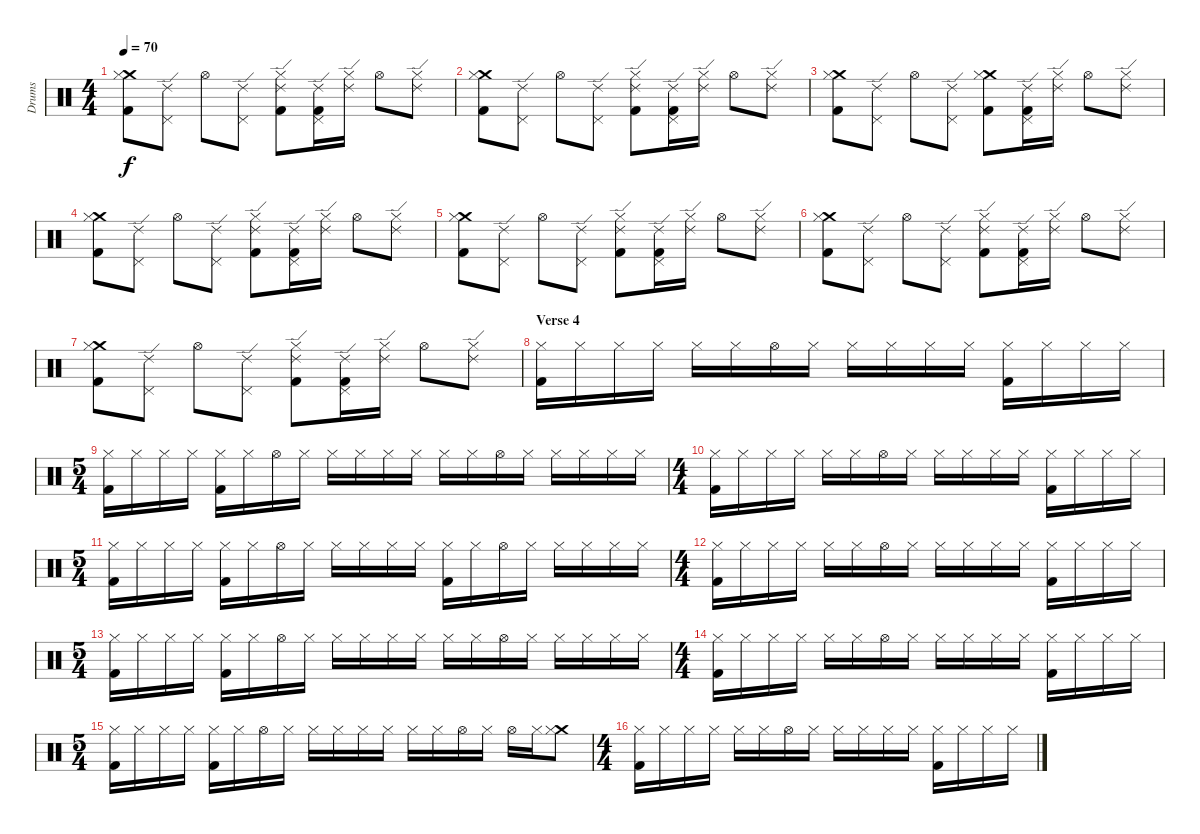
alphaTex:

\track ("Drums" "Drums") {instrument percussion}
\staff {score}
\articulation defaults
\ts (4 4)
\tempo 70
\clef neutral
\ks c
("Crash medium (hit)" "Hi-Hat (closed)" "Kick (hit) 2").8{dy f} ("Ride (edge) 2" "Pedal Hi-Hat (hit)").8 "Hi-Hat (open)".8 ("Ride (edge) 2" "Pedal Hi-Hat (hit)").8 ("Ride (edge) 2" "Hi-Hat (closed)" "Kick (hit) 2").8 ("Ride (edge) 2" "Pedal Hi-Hat (hit)" "Kick (hit) 2").16 ("Ride (edge) 2" "Hi-Hat (closed)").16 "Hi-Hat (open)".8 ("Ride (edge) 2" "Hi-Hat (closed)").8 |
("Crash medium (hit)" "Hi-Hat (closed)" "Kick (hit) 2").8 ("Ride (edge) 2" "Pedal Hi-Hat (hit)").8 "Hi-Hat (open)".8 ("Ride (edge) 2" "Pedal Hi-Hat (hit)").8 ("Ride (edge) 2" "Hi-Hat (closed)" "Kick (hit) 2").8 ("Ride (edge) 2" "Pedal Hi-Hat (hit)" "Kick (hit) 2").16 ("Ride (edge) 2" "Hi-Hat (closed)").16 "Hi-Hat (open)".8 ("Ride (edge) 2" "Hi-Hat (closed)").8 |
("Crash medium (hit)" "Hi-Hat (closed)" "Kick (hit) 2").8 ("Ride (edge) 2" "Pedal Hi-Hat (hit)").8 "Hi-Hat (open)".8 ("Ride (edge) 2" "Pedal Hi-Hat (hit)").8 ("Crash medium (hit)" "Hi-Hat (closed)" "Kick (hit) 2").8 ("Ride (edge) 2" "Pedal Hi-Hat (hit)" "Kick (hit) 2").16 ("Ride (edge) 2" "Hi-Hat (closed)").16 "Hi-Hat (open)".8 ("Ride (edge) 2" "Hi-Hat (closed)").8 |
("Crash medium (hit)" "Hi-Hat (closed)" "Kick (hit) 2").8 ("Ride (edge) 2" "Pedal Hi-Hat (hit)").8 "Hi-Hat (open)".8 ("Ride (edge) 2" "Pedal Hi-Hat (hit)").8 ("Ride (edge) 2" "Hi-Hat (closed)" "Kick (hit) 2").8 ("Ride (edge) 2" "Pedal Hi-Hat (hit)" "Kick (hit) 2").16 ("Ride (edge) 2" "Hi-Hat (closed)").16 "Hi-Hat (open)".8 ("Ride (edge) 2" "Hi-Hat (closed)").8 |
("Crash medium (hit)" "Hi-Hat (closed)" "Kick (hit) 2").8 ("Ride (edge) 2" "Pedal Hi-Hat (hit)").8 "Hi-Hat (open)".8 ("Ride (edge) 2" "Pedal Hi-Hat (hit)").8 ("Ride (edge) 2" "Hi-Hat (closed)" "Kick (hit) 2").8 ("Ride (edge) 2" "Pedal Hi-Hat (hit)" "Kick (hit) 2").16 ("Ride (edge) 2" "Hi-Hat (closed)").16 "Hi-Hat (open)".8 ("Ride (edge) 2" "Hi-Hat (closed)").8 |
("Crash medium (hit)" "Hi-Hat (closed)" "Kick (hit) 2").8 ("Ride (edge) 2" "Pedal Hi-Hat (hit)").8 "Hi-Hat (open)".8 ("Ride (edge) 2" "Pedal Hi-Hat (hit)").8 ("Ride (edge) 2" "Hi-Hat (closed)" "Kick (hit) 2").8 ("Ride (edge) 2" "Pedal Hi-Hat (hit)" "Kick (hit) 2").16 ("Ride (edge) 2" "Hi-Hat (closed)").16 "Hi-Hat (open)".8 ("Ride (edge) 2" "Hi-Hat (closed)").8 |
("Crash medium (hit)" "Hi-Hat (closed)" "Kick (hit) 2").8 ("Ride (edge) 2" "Pedal Hi-Hat (hit)").8 "Hi-Hat (open)".8 ("Ride (edge) 2" "Pedal Hi-Hat (hit)").8 ("Ride (edge) 2" "Hi-Hat (closed)" "Kick (hit) 2").8 ("Ride (edge) 2" "Pedal Hi-Hat (hit)" "Kick (hit) 2").16 ("Ride (edge) 2" "Hi-Hat (closed)").16 "Hi-Hat (open)".8 ("Ride (edge) 2" "Hi-Hat (closed)").8 |
\section ("" "Verse 4")
("Hi-Hat (closed)" "Kick (hit) 2").16 "Hi-Hat (closed)".16 "Hi-Hat (closed)".16 "Hi-Hat (closed)".16 "Hi-Hat (closed)".16 "Hi-Hat (closed)".16 "Hi-Hat (open)".16 "Hi-Hat (closed)".16 "Hi-Hat (closed)".16 "Hi-Hat (closed)".16 "Hi-Hat (closed)".16 "Hi-Hat (closed)".16 ("Hi-Hat (closed)" "Kick (hit) 2").16 "Hi-Hat (closed)".16 "Hi-Hat (closed)".16 "Hi-Hat (closed)".16 |
\ts (5 4)
("Hi-Hat (closed)" "Kick (hit) 2").16 "Hi-Hat (closed)".16 "Hi-Hat (closed)".16 "Hi-Hat (closed)".16 ("Hi-Hat (closed)" "Kick (hit) 2").16 "Hi-Hat (closed)".16 "Hi-Hat (open)".16 "Hi-Hat (closed)".16 "Hi-Hat (closed)".16 "Hi-Hat (closed)".16 "Hi-Hat (closed)".16 "Hi-Hat (closed)".16 "Hi-Hat (closed)".16 "Hi-Hat (closed)".16 "Hi-Hat (open)".16 "Hi-Hat (closed)".16 "Hi-Hat (closed)".16 "Hi-Hat (closed)".16 "Hi-Hat (closed)".16 "Hi-Hat (closed)".16 |
\ts (4 4)
("Hi-Hat (closed)" "Kick (hit) 2").16 "Hi-Hat (closed)".16 "Hi-Hat (closed)".16 "Hi-Hat (closed)".16 "Hi-Hat (closed)".16 "Hi-Hat (closed)".16 "Hi-Hat (open)".16 "Hi-Hat (closed)".16 "Hi-Hat (closed)".16 "Hi-Hat (closed)".16 "Hi-Hat (closed)".16 "Hi-Hat (closed)".16 ("Hi-Hat (closed)" "Kick (hit) 2").16 "Hi-Hat (closed)".16 "Hi-Hat (closed)".16 "Hi-Hat (closed)".16 |
\ts (5 4)
("Hi-Hat (closed)" "Kick (hit) 2").16 "Hi-Hat (closed)".16 "Hi-Hat (closed)".16 "Hi-Hat (closed)".16 ("Hi-Hat (closed)" "Kick (hit) 2").16 "Hi-Hat (closed)".16 "Hi-Hat (open)".16 "Hi-Hat (closed)".16 "Hi-Hat (closed)".16 "Hi-Hat (closed)".16 "Hi-Hat (closed)".16 "Hi-Hat (closed)".16 ("Hi-Hat (closed)" "Kick (hit) 2").16 "Hi-Hat (closed)".16 "Hi-Hat (open)".16 "Hi-Hat (closed)".16 "Hi-Hat (closed)".16 "Hi-Hat (closed)".16 "Hi-Hat (closed)".16 "Hi-Hat (closed)".16 |
\ts (4 4)
("Hi-Hat (closed)" "Kick (hit) 2").16 "Hi-Hat (closed)".16 "Hi-Hat (closed)".16 "Hi-Hat (closed)".16 "Hi-Hat (closed)".16 "Hi-Hat (closed)".16 "Hi-Hat (open)".16 "Hi-Hat (closed)".16 "Hi-Hat (closed)".16 "Hi-Hat (closed)".16 "Hi-Hat (closed)".16 "Hi-Hat (closed)".16 ("Hi-Hat (closed)" "Kick (hit) 2").16 "Hi-Hat (closed)".16 "Hi-Hat (closed)".16 "Hi-Hat (closed)".16 |
\ts (5 4)
("Hi-Hat (closed)" "Kick (hit) 2").16 "Hi-Hat (closed)".16 "Hi-Hat (closed)".16 "Hi-Hat (closed)".16 ("Hi-Hat (closed)" "Kick (hit) 2").16 "Hi-Hat (closed)".16 "Hi-Hat (open)".16 "Hi-Hat (closed)".16 "Hi-Hat (closed)".16 "Hi-Hat (closed)".16 "Hi-Hat (closed)".16 "Hi-Hat (closed)".16 "Hi-Hat (closed)".16 "Hi-Hat (closed)".16 "Hi-Hat (open)".16 "Hi-Hat (closed)".16 "Hi-Hat (closed)".16 "Hi-Hat (closed)".16 "Hi-Hat (closed)".16 "Hi-Hat (closed)".16 |
\ts (4 4)
("Hi-Hat (closed)" "Kick (hit) 2").16 "Hi-Hat (closed)".16 "Hi-Hat (closed)".16 "Hi-Hat (closed)".16 "Hi-Hat (closed)".16 "Hi-Hat (closed)".16 "Hi-Hat (open)".16 "Hi-Hat (closed)".16 "Hi-Hat (closed)".16 "Hi-Hat (closed)".16 "Hi-Hat (closed)".16 "Hi-Hat (closed)".16 ("Hi-Hat (closed)" "Kick (hit) 2").16 "Hi-Hat (closed)".16 "Hi-Hat (closed)".16 "Hi-Hat (closed)".16 |
\ts (5 4)
("Hi-Hat (closed)" "Kick (hit) 2").16 "Hi-Hat (closed)".16 "Hi-Hat (closed)".16 "Hi-Hat (closed)".16 ("Hi-Hat (closed)" "Kick (hit) 2").16 "Hi-Hat (closed)".16 "Hi-Hat (open)".16 "Hi-Hat (closed)".16 "Hi-Hat (closed)".16 "Hi-Hat (closed)".16 "Hi-Hat (closed)".16 "Hi-Hat (closed)".16 "Hi-Hat (closed)".16 "Hi-Hat (closed)".16 "Hi-Hat (open)".16 "Hi-Hat (closed)".16 "Hi-Hat (open)".16 "Hi-Hat (closed)".16 ("Crash medium (hit)" "Hi-Hat (closed)").8 |
\ts (4 4)
("Hi-Hat (closed)" "Kick (hit) 2").16 "Hi-Hat (closed)".16 "Hi-Hat (closed)".16 "Hi-Hat (closed)".16 "Hi-Hat (closed)".16 "Hi-Hat (closed)".16 "Hi-Hat (open)".16 "Hi-Hat (closed)".16 "Hi-Hat (closed)".16 "Hi-Hat (closed)".16 "Hi-Hat (closed)".16 "Hi-Hat (closed)".16 ("Hi-Hat (closed)" "Kick (hit) 2").16 "Hi-Hat (closed)".16 "Hi-Hat (closed)".16 "Hi-Hat (closed)".16
